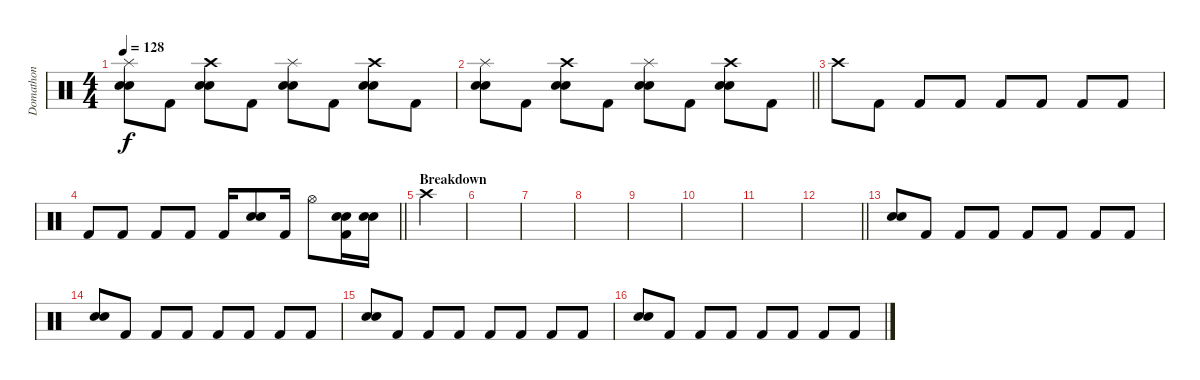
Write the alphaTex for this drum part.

\track ("Domathon" "Domathon") {instrument percussion}
\staff {score}
\articulation defaults
\ts (4 4)
\tempo 128
\clef neutral
\ks c
("Splash (hit)" "Snare (hit) 2" "Electric Snare (hit)").8{dy f} "Kick (hit) 2".8 ("Crash high (hit)" "Snare (hit) 2" "Electric Snare (hit)").8 "Kick (hit) 2".8 ("Splash (hit)" "Snare (hit) 2" "Electric Snare (hit)").8 "Kick (hit) 2".8 ("Crash high (hit)" "Snare (hit) 2" "Electric Snare (hit)").8 "Kick (hit) 2".8 |
\barLineRight lightlight
("Splash (hit)" "Snare (hit) 2" "Electric Snare (hit)").8 "Kick (hit) 2".8 ("Crash high (hit)" "Snare (hit) 2" "Electric Snare (hit)").8 "Kick (hit) 2".8 ("Splash (hit)" "Snare (hit) 2" "Electric Snare (hit)").8 "Kick (hit) 2".8 ("Crash high (hit)" "Snare (hit) 2" "Electric Snare (hit)").8 "Kick (hit) 2".8 |
"Crash high (hit)".8 "Kick (hit) 2".8{volume 0} "Kick (hit) 2".8{volume 13} "Kick (hit) 2".8 "Kick (hit) 2".8 "Kick (hit) 2".8 "Kick (hit) 2".8 "Kick (hit) 2".8 |
\barLineRight lightlight "Kick (hit) 2".8 "Kick (hit) 2".8 "Kick (hit) 2".8 "Kick (hit) 2".8 "Kick (hit) 2".16
("Snare (hit) 2" "Electric Snare (hit)").8 "Kick (hit) 2".16 "Hi-Hat (open)".8 ("Snare (hit) 2" "Electric Snare (hit)" "Kick (hit) 2").16 ("Snare (hit) 2" "Electric Snare (hit)").16 |
\section ("" "Breakdown")
"Crash high (hit)".4 |
|
|
|
|
|
|
\barLineRight lightlight
|
("Snare (hit) 2" "Electric Snare (hit)").8 "Kick (hit) 2".8 "Kick (hit) 2".8 "Kick (hit) 2".8 "Kick (hit) 2".8 "Kick (hit) 2".8 "Kick (hit) 2".8 "Kick (hit) 2".8 |
("Snare (hit) 2" "Electric Snare (hit)").8 "Kick (hit) 2".8 "Kick (hit) 2".8 "Kick (hit) 2".8 "Kick (hit) 2".8 "Kick (hit) 2".8 "Kick (hit) 2".8 "Kick (hit) 2".8 |
("Snare (hit) 2" "Electric Snare (hit)").8 "Kick (hit) 2".8 "Kick (hit) 2".8 "Kick (hit) 2".8 "Kick (hit) 2".8 "Kick (hit) 2".8 "Kick (hit) 2".8 "Kick (hit) 2".8 |
("Snare (hit) 2" "Electric Snare (hit)").8 "Kick (hit) 2".8 "Kick (hit) 2".8 "Kick (hit) 2".8 "Kick (hit) 2".8 "Kick (hit) 2".8 "Kick (hit) 2".8 "Kick (hit) 2".8
